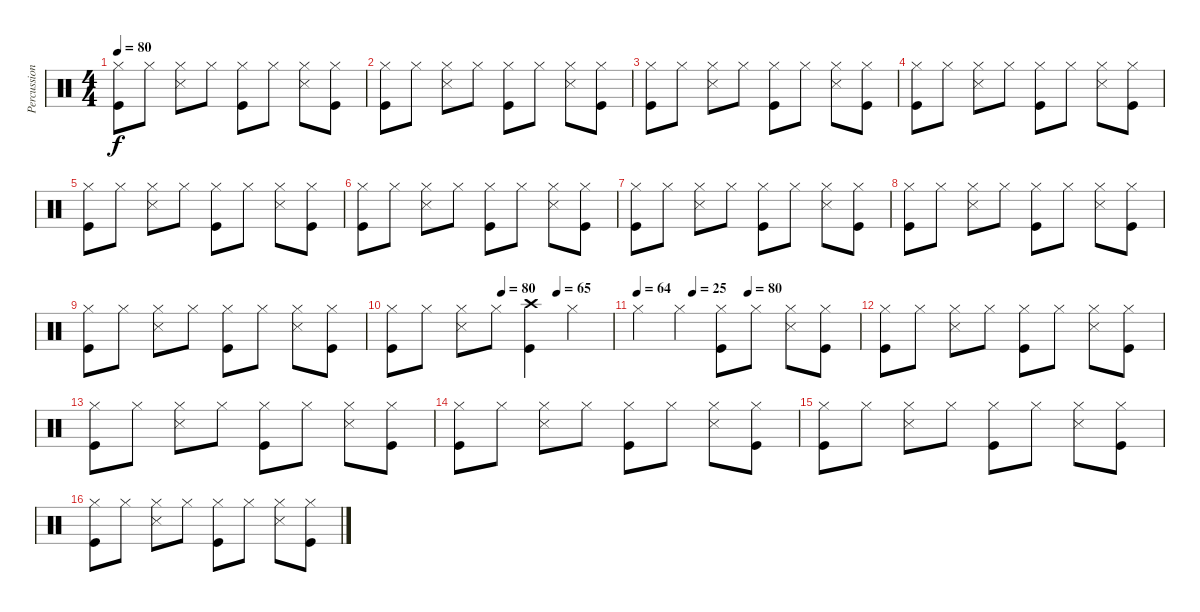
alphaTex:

\track ("Percussion" "Percussion") {instrument percussion}
\staff {score}
\articulation defaults
\ts (4 4)
\tempo 80
\clef neutral
\ks c
("Hi-Hat (closed)" "Kick (hit)").8{dy f} "Hi-Hat (closed)".8 ("Hi-Hat (closed)" "Snare (side stick) 3").8 "Hi-Hat (closed)".8 ("Hi-Hat (closed)" "Kick (hit)").8 "Hi-Hat (closed)".8 ("Hi-Hat (closed)" "Snare (side stick) 3").8 ("Hi-Hat (closed)" "Kick (hit)").8 |
("Hi-Hat (closed)" "Kick (hit)").8 "Hi-Hat (closed)".8 ("Hi-Hat (closed)" "Snare (side stick) 3").8 "Hi-Hat (closed)".8 ("Hi-Hat (closed)" "Kick (hit)").8 "Hi-Hat (closed)".8 ("Hi-Hat (closed)" "Snare (side stick) 3").8 ("Hi-Hat (closed)" "Kick (hit)").8 |
("Hi-Hat (closed)" "Kick (hit)").8 "Hi-Hat (closed)".8 ("Hi-Hat (closed)" "Snare (side stick) 3").8 "Hi-Hat (closed)".8 ("Hi-Hat (closed)" "Kick (hit)").8 "Hi-Hat (closed)".8 ("Hi-Hat (closed)" "Snare (side stick) 3").8 ("Hi-Hat (closed)" "Kick (hit)").8 |
("Hi-Hat (closed)" "Kick (hit)").8 "Hi-Hat (closed)".8 ("Hi-Hat (closed)" "Snare (side stick) 3").8 "Hi-Hat (closed)".8 ("Hi-Hat (closed)" "Kick (hit)").8 "Hi-Hat (closed)".8 ("Hi-Hat (closed)" "Snare (side stick) 3").8 ("Hi-Hat (closed)" "Kick (hit)").8 |
("Hi-Hat (closed)" "Kick (hit)").8 "Hi-Hat (closed)".8 ("Hi-Hat (closed)" "Snare (side stick) 3").8 "Hi-Hat (closed)".8 ("Hi-Hat (closed)" "Kick (hit)").8 "Hi-Hat (closed)".8 ("Hi-Hat (closed)" "Snare (side stick) 3").8 ("Hi-Hat (closed)" "Kick (hit)").8 |
("Hi-Hat (closed)" "Kick (hit)").8 "Hi-Hat (closed)".8 ("Hi-Hat (closed)" "Snare (side stick) 3").8 "Hi-Hat (closed)".8 ("Hi-Hat (closed)" "Kick (hit)").8 "Hi-Hat (closed)".8 ("Hi-Hat (closed)" "Snare (side stick) 3").8 ("Hi-Hat (closed)" "Kick (hit)").8 |
("Hi-Hat (closed)" "Kick (hit)").8 "Hi-Hat (closed)".8 ("Hi-Hat (closed)" "Snare (side stick) 3").8 "Hi-Hat (closed)".8 ("Hi-Hat (closed)" "Kick (hit)").8 "Hi-Hat (closed)".8 ("Hi-Hat (closed)" "Snare (side stick) 3").8 ("Hi-Hat (closed)" "Kick (hit)").8 |
("Hi-Hat (closed)" "Kick (hit)").8 "Hi-Hat (closed)".8 ("Hi-Hat (closed)" "Snare (side stick) 3").8 "Hi-Hat (closed)".8 ("Hi-Hat (closed)" "Kick (hit)").8 "Hi-Hat (closed)".8 ("Hi-Hat (closed)" "Snare (side stick) 3").8 ("Hi-Hat (closed)" "Kick (hit)").8 |
("Hi-Hat (closed)" "Kick (hit)").8 "Hi-Hat (closed)".8 ("Hi-Hat (closed)" "Snare (side stick) 3").8 "Hi-Hat (closed)".8 ("Hi-Hat (closed)" "Kick (hit)").8 "Hi-Hat (closed)".8 ("Hi-Hat (closed)" "Snare (side stick) 3").8 ("Hi-Hat (closed)" "Kick (hit)").8 |
\tempo (80 0.5)
\tempo (65 0.75)
("Hi-Hat (closed)" "Kick (hit)").8 "Hi-Hat (closed)".8 ("Hi-Hat (closed)" "Snare (side stick) 3").8 "Hi-Hat (closed)".8 ("Crash high (hit)" "Kick (hit)").4{volume 8} "Hi-Hat (closed)".4 |
\tempo 64
\tempo (25 0.25)
\tempo (80 0.5)
"Hi-Hat (closed)".4 "Hi-Hat (closed)".4 ("Hi-Hat (closed)" "Kick (hit)").8{volume 12} "Hi-Hat (closed)".8 ("Hi-Hat (closed)" "Snare (side stick) 3").8 ("Hi-Hat (closed)" "Kick (hit)").8 |
("Hi-Hat (closed)" "Kick (hit)").8 "Hi-Hat (closed)".8 ("Hi-Hat (closed)" "Snare (side stick) 3").8 "Hi-Hat (closed)".8 ("Hi-Hat (closed)" "Kick (hit)").8 "Hi-Hat (closed)".8 ("Hi-Hat (closed)" "Snare (side stick) 3").8 ("Hi-Hat (closed)" "Kick (hit)").8 |
("Hi-Hat (closed)" "Kick (hit)").8 "Hi-Hat (closed)".8 ("Hi-Hat (closed)" "Snare (side stick) 3").8 "Hi-Hat (closed)".8 ("Hi-Hat (closed)" "Kick (hit)").8 "Hi-Hat (closed)".8 ("Hi-Hat (closed)" "Snare (side stick) 3").8 ("Hi-Hat (closed)" "Kick (hit)").8 |
("Hi-Hat (closed)" "Kick (hit)").8 "Hi-Hat (closed)".8 ("Hi-Hat (closed)" "Snare (side stick) 3").8 "Hi-Hat (closed)".8 ("Hi-Hat (closed)" "Kick (hit)").8 "Hi-Hat (closed)".8 ("Hi-Hat (closed)" "Snare (side stick) 3").8 ("Hi-Hat (closed)" "Kick (hit)").8 |
("Hi-Hat (closed)" "Kick (hit)").8 "Hi-Hat (closed)".8 ("Hi-Hat (closed)" "Snare (side stick) 3").8 "Hi-Hat (closed)".8 ("Hi-Hat (closed)" "Kick (hit)").8 "Hi-Hat (closed)".8 ("Hi-Hat (closed)" "Snare (side stick) 3").8 ("Hi-Hat (closed)" "Kick (hit)").8 |
("Hi-Hat (closed)" "Kick (hit)").8 "Hi-Hat (closed)".8 ("Hi-Hat (closed)" "Snare (side stick) 3").8 "Hi-Hat (closed)".8 ("Hi-Hat (closed)" "Kick (hit)").8 "Hi-Hat (closed)".8 ("Hi-Hat (closed)" "Snare (side stick) 3").8 ("Hi-Hat (closed)" "Kick (hit)").8
